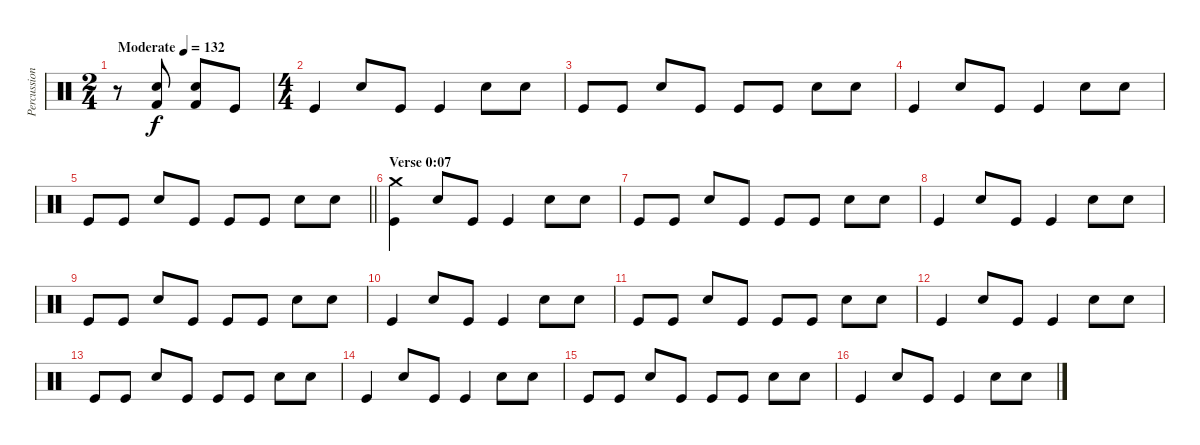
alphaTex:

\track ("Percussion" "Percussion") {instrument percussion}
\staff {score}
\articulation defaults
\ts (2 4)
\tempo (132 "Moderate")
\clef neutral
\ks c
r.8{dy f} ("Electric Snare (hit)" "Kick (hit) 2").8 ("Electric Snare (hit)" "Kick (hit) 2").8 "Kick (hit)".8 |
\ts (4 4)
"Kick (hit)".4 "Electric Snare (hit)".8 "Kick (hit)".8 "Kick (hit)".4 "Electric Snare (hit)".8 "Electric Snare (hit)".8 |
"Kick (hit)".8 "Kick (hit)".8 "Electric Snare (hit)".8 "Kick (hit)".8 "Kick (hit)".8 "Kick (hit)".8 "Electric Snare (hit)".8 "Electric Snare (hit)".8 |
"Kick (hit)".4 "Electric Snare (hit)".8 "Kick (hit)".8 "Kick (hit)".4 "Electric Snare (hit)".8 "Electric Snare (hit)".8 |
\barLineRight lightlight "Kick (hit)".8 "Kick (hit)".8 "Electric Snare (hit)".8 "Kick (hit)".8 "Kick (hit)".8 "Kick (hit)".8 "Electric Snare (hit)".8 "Electric Snare (hit)".8
|
\section ("" "Verse 0:07")
("Crash medium (hit)" "Kick (hit)").4 "Electric Snare (hit)".8 "Kick (hit)".8 "Kick (hit)".4 "Electric Snare (hit)".8 "Electric Snare (hit)".8 |
"Kick (hit)".8 "Kick (hit)".8 "Electric Snare (hit)".8 "Kick (hit)".8 "Kick (hit)".8 "Kick (hit)".8 "Electric Snare (hit)".8 "Electric Snare (hit)".8 |
"Kick (hit)".4 "Electric Snare (hit)".8 "Kick (hit)".8 "Kick (hit)".4 "Electric Snare (hit)".8 "Electric Snare (hit)".8 |
"Kick (hit)".8 "Kick (hit)".8 "Electric Snare (hit)".8 "Kick (hit)".8 "Kick (hit)".8 "Kick (hit)".8 "Electric Snare (hit)".8 "Electric Snare (hit)".8 |
"Kick (hit)".4 "Electric Snare (hit)".8 "Kick (hit)".8 "Kick (hit)".4 "Electric Snare (hit)".8 "Electric Snare (hit)".8 |
"Kick (hit)".8 "Kick (hit)".8 "Electric Snare (hit)".8 "Kick (hit)".8 "Kick (hit)".8 "Kick (hit)".8 "Electric Snare (hit)".8 "Electric Snare (hit)".8 |
"Kick (hit)".4 "Electric Snare (hit)".8 "Kick (hit)".8 "Kick (hit)".4 "Electric Snare (hit)".8 "Electric Snare (hit)".8 |
"Kick (hit)".8 "Kick (hit)".8 "Electric Snare (hit)".8 "Kick (hit)".8 "Kick (hit)".8 "Kick (hit)".8 "Electric Snare (hit)".8 "Electric Snare (hit)".8 |
"Kick (hit)".4 "Electric Snare (hit)".8 "Kick (hit)".8 "Kick (hit)".4 "Electric Snare (hit)".8 "Electric Snare (hit)".8 |
"Kick (hit)".8 "Kick (hit)".8 "Electric Snare (hit)".8 "Kick (hit)".8 "Kick (hit)".8 "Kick (hit)".8 "Electric Snare (hit)".8 "Electric Snare (hit)".8 |
"Kick (hit)".4 "Electric Snare (hit)".8 "Kick (hit)".8 "Kick (hit)".4 "Electric Snare (hit)".8 "Electric Snare (hit)".8
